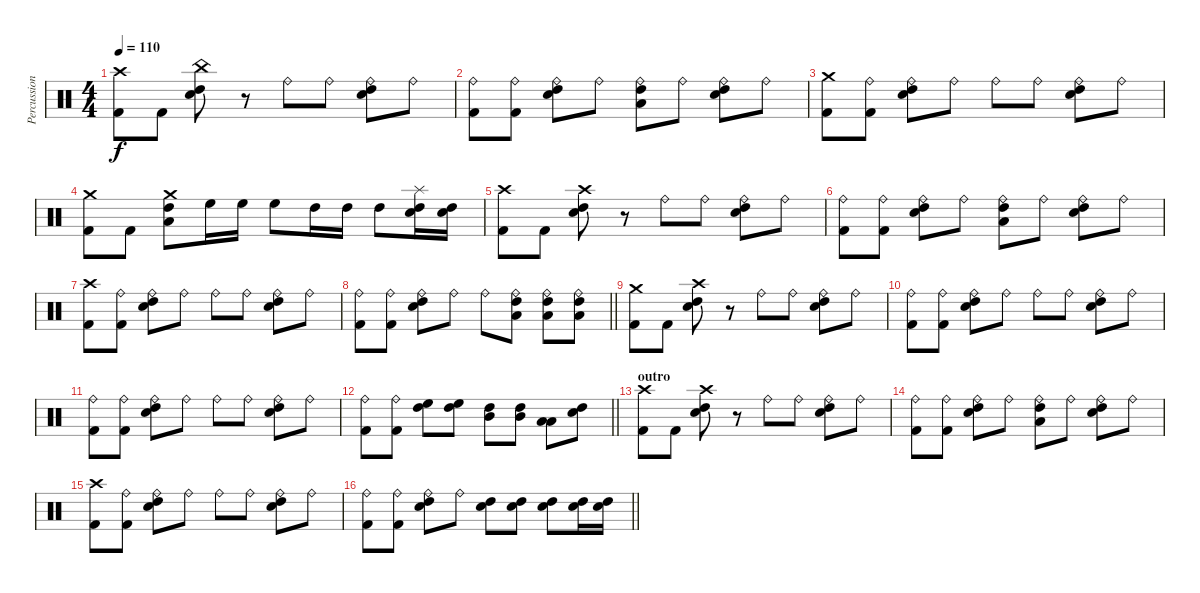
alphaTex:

\track ("Percussion" "Percussion") {instrument percussion}
\staff {score}
\articulation defaults
\ts (4 4)
\tempo 110
\clef neutral
\ks c
("Crash high (hit)" "Kick (hit) 2").8{dy f} "Kick (hit) 2".8 ("China (hit)" "High Tom (hit)" "Snare (hit) 2").8 r.8 "Ride (bell)".8 "Ride (bell)".8 ("Ride (bell)" "High Tom (hit)" "Snare (hit) 2").8 "Ride (bell)".8 |
("Ride (bell)" "Kick (hit) 2").8 ("Ride (bell)" "Kick (hit) 2").8 ("Ride (bell)" "High Tom (hit)" "Snare (hit) 2").8 "Ride (bell)".8 ("Ride (bell)" "High Tom (hit)" "Low Tom (hit)").8 "Ride (bell)".8 ("Ride (bell)" "High Tom (hit)" "Snare (hit) 2").8 "Ride (bell)".8 |
("Crash medium (hit)" "Kick (hit) 2").8 ("Ride (bell)" "Kick (hit) 2").8 ("Ride (bell)" "High Tom (hit)" "Snare (hit) 2").8 "Ride (bell)".8 "Ride (bell)".8 "Ride (bell)".8 ("Ride (bell)" "High Tom (hit)" "Snare (hit) 2").8 "Ride (bell)".8 |
("Crash medium (hit)" "Kick (hit) 2").8 "Kick (hit) 2".8 ("Crash medium (hit)" "High Tom (hit)" "Low Tom (hit)").8 "High Floor Tom (hit)".16 "High Floor Tom (hit)".16 "High Floor Tom (hit)".8 "High Tom (hit)".16 "High Tom (hit)".16 "High Tom (hit)".8 ("Splash (hit)" "High Tom (hit)" "Snare (hit) 2").16 ("High Tom (hit)" "Snare (hit) 2").16 |
("Crash high (hit)" "Kick (hit) 2").8 "Kick (hit) 2".8 ("Crash high (hit)" "High Tom (hit)" "Snare (hit) 2").8 r.8 "Ride (bell)".8 "Ride (bell)".8 ("Ride (bell)" "High Tom (hit)" "Snare (hit) 2").8 "Ride (bell)".8 |
("Ride (bell)" "Kick (hit) 2").8 ("Ride (bell)" "Kick (hit) 2").8 ("Ride (bell)" "High Tom (hit)" "Snare (hit) 2").8 "Ride (bell)".8 ("Ride (bell)" "High Tom (hit)" "Low Tom (hit)").8 "Ride (bell)".8 ("Ride (bell)" "High Tom (hit)" "Snare (hit) 2").8 "Ride (bell)".8 |
("Crash high (hit)" "Kick (hit) 2").8 ("Ride (bell)" "Kick (hit) 2").8 ("Ride (bell)" "High Tom (hit)" "Snare (hit) 2").8 "Ride (bell)".8 "Ride (bell)".8 "Ride (bell)".8 ("Ride (bell)" "High Tom (hit)" "Snare (hit) 2").8 "Ride (bell)".8 |
\barLineRight lightlight
("Ride (bell)" "Kick (hit) 2").8 ("Ride (bell)" "Kick (hit) 2").8 ("Ride (bell)" "High Tom (hit)" "Snare (hit) 2").8 "Ride (bell)".8 "Ride (bell)".8 ("Ride (bell)" "High Tom (hit)" "Low Tom (hit)").8 ("Ride (bell)" "High Tom (hit)" "Low Tom (hit)").8 ("Ride (bell)" "High Tom (hit)" "Low Tom (hit)").8 |
("Crash medium (hit)" "Kick (hit) 2").8 "Kick (hit) 2".8 ("Crash high (hit)" "High Tom (hit)" "Snare (hit) 2").8 r.8 "Ride (bell)".8 "Ride (bell)".8 ("Ride (bell)" "High Tom (hit)" "Snare (hit) 2").8 "Ride (bell)".8 |
("Ride (bell)" "Kick (hit) 2").8 ("Ride (bell)" "Kick (hit) 2").8 ("Ride (bell)" "High Tom (hit)" "Snare (hit) 2").8 "Ride (bell)".8 "Ride (bell)".8 "Ride (bell)".8 ("Ride (bell)" "High Tom (hit)" "Snare (hit) 2").8 "Ride (bell)".8 |
("Ride (bell)" "Kick (hit) 2").8 ("Ride (bell)" "Kick (hit) 2").8 ("Ride (bell)" "High Tom (hit)" "Snare (hit) 2").8 "Ride (bell)".8 "Ride (bell)".8 "Ride (bell)".8 ("Ride (bell)" "High Tom (hit)" "Snare (hit) 2").8 "Ride (bell)".8 |
\barLineRight lightlight
("Ride (bell)" "Kick (hit) 2").8 ("Ride (bell)" "Kick (hit) 2").8 ("High Floor Tom (hit)" "High Tom (hit)").8 ("High Floor Tom (hit)" "High Tom (hit)").8 ("High Tom (hit)" "Mid Tom (hit)").8 ("High Tom (hit)" "Mid Tom (hit)").8 ("Low Tom (hit)" "Low Floor Tom (hit)").8 ("High Tom (hit)" "Snare (hit) 2").8 |
\section ("" "outro")
("Crash high (hit)" "Kick (hit) 2").8 "Kick (hit) 2".8 ("Crash high (hit)" "High Tom (hit)" "Snare (hit) 2").8 r.8 "Ride (bell)".8 "Ride (bell)".8 ("Ride (bell)" "High Tom (hit)" "Snare (hit) 2").8 "Ride (bell)".8 |
("Ride (bell)" "Kick (hit) 2").8 ("Ride (bell)" "Kick (hit) 2").8 ("Ride (bell)" "High Tom (hit)" "Snare (hit) 2").8 "Ride (bell)".8 ("Ride (bell)" "High Tom (hit)" "Low Tom (hit)").8 "Ride (bell)".8 ("Ride (bell)" "High Tom (hit)" "Snare (hit) 2").8 "Ride (bell)".8 |
("Crash high (hit)" "Kick (hit) 2").8 ("Ride (bell)" "Kick (hit) 2").8 ("Ride (bell)" "High Tom (hit)" "Snare (hit) 2").8 "Ride (bell)".8 "Ride (bell)".8 "Ride (bell)".8 ("Ride (bell)" "High Tom (hit)" "Snare (hit) 2").8 "Ride (bell)".8 |
\barLineRight lightlight
("Ride (bell)" "Kick (hit) 2").8 ("Ride (bell)" "Kick (hit) 2").8 ("Ride (bell)" "High Tom (hit)" "Snare (hit) 2").8 "Ride (bell)".8 ("High Tom (hit)" "Snare (hit) 2").8 ("High Tom (hit)" "Snare (hit) 2").8 ("High Tom (hit)" "Snare (hit) 2").8 ("High Tom (hit)" "Snare (hit) 2").16 ("High Tom (hit)" "Snare (hit) 2").16
